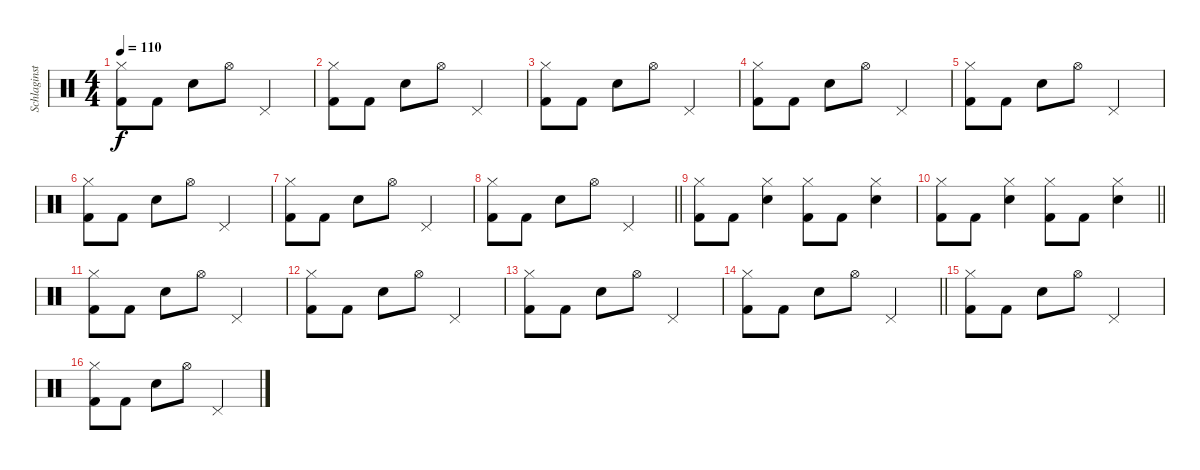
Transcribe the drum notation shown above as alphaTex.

\track ("Schlaginstrumente - Auswahl" "Schlaginst") {instrument percussion}
\staff {score}
\articulation defaults
\ts (4 4)
\tempo 110
\clef neutral
\ks c
("Hi-Hat (closed)" "Kick (hit) 2").8{dy f} "Kick (hit) 2".8 "Snare (hit) 2".8 "Hi-Hat (open)".8 "Pedal Hi-Hat (hit)".2 |
("Hi-Hat (closed)" "Kick (hit) 2").8 "Kick (hit) 2".8 "Snare (hit) 2".8 "Hi-Hat (open)".8 "Pedal Hi-Hat (hit)".2 |
("Hi-Hat (closed)" "Kick (hit) 2").8 "Kick (hit) 2".8 "Snare (hit) 2".8 "Hi-Hat (open)".8 "Pedal Hi-Hat (hit)".2 |
("Hi-Hat (closed)" "Kick (hit) 2").8 "Kick (hit) 2".8 "Snare (hit) 2".8 "Hi-Hat (open)".8 "Pedal Hi-Hat (hit)".2 |
("Hi-Hat (closed)" "Kick (hit) 2").8 "Kick (hit) 2".8 "Snare (hit) 2".8 "Hi-Hat (open)".8 "Pedal Hi-Hat (hit)".2 |
("Hi-Hat (closed)" "Kick (hit) 2").8 "Kick (hit) 2".8 "Snare (hit) 2".8 "Hi-Hat (open)".8 "Pedal Hi-Hat (hit)".2 |
("Hi-Hat (closed)" "Kick (hit) 2").8 "Kick (hit) 2".8 "Snare (hit) 2".8 "Hi-Hat (open)".8 "Pedal Hi-Hat (hit)".2 |
\barLineRight lightlight
("Hi-Hat (closed)" "Kick (hit) 2").8 "Kick (hit) 2".8 "Snare (hit) 2".8 "Hi-Hat (open)".8 "Pedal Hi-Hat (hit)".2 |
("Hi-Hat (closed)" "Kick (hit) 2").8 "Kick (hit) 2".8 ("Hi-Hat (closed)" "Snare (hit) 2").4 ("Hi-Hat (closed)" "Kick (hit) 2").8 "Kick (hit) 2".8 ("Hi-Hat (closed)" "Snare (hit) 2").4 |
\barLineRight lightlight
("Hi-Hat (closed)" "Kick (hit) 2").8 "Kick (hit) 2".8 ("Hi-Hat (closed)" "Snare (hit) 2").4 ("Hi-Hat (closed)" "Kick (hit) 2").8 "Kick (hit) 2".8 ("Hi-Hat (closed)" "Snare (hit) 2").4 |
("Hi-Hat (closed)" "Kick (hit) 2").8 "Kick (hit) 2".8 "Snare (hit) 2".8 "Hi-Hat (open)".8 "Pedal Hi-Hat (hit)".2 |
("Hi-Hat (closed)" "Kick (hit) 2").8 "Kick (hit) 2".8 "Snare (hit) 2".8 "Hi-Hat (open)".8 "Pedal Hi-Hat (hit)".2 |
("Hi-Hat (closed)" "Kick (hit) 2").8 "Kick (hit) 2".8 "Snare (hit) 2".8 "Hi-Hat (open)".8 "Pedal Hi-Hat (hit)".2 |
\barLineRight lightlight
("Hi-Hat (closed)" "Kick (hit) 2").8 "Kick (hit) 2".8 "Snare (hit) 2".8 "Hi-Hat (open)".8 "Pedal Hi-Hat (hit)".2 |
("Hi-Hat (closed)" "Kick (hit) 2").8 "Kick (hit) 2".8 "Snare (hit) 2".8 "Hi-Hat (open)".8 "Pedal Hi-Hat (hit)".2 |
("Hi-Hat (closed)" "Kick (hit) 2").8 "Kick (hit) 2".8 "Snare (hit) 2".8 "Hi-Hat (open)".8 "Pedal Hi-Hat (hit)".2
